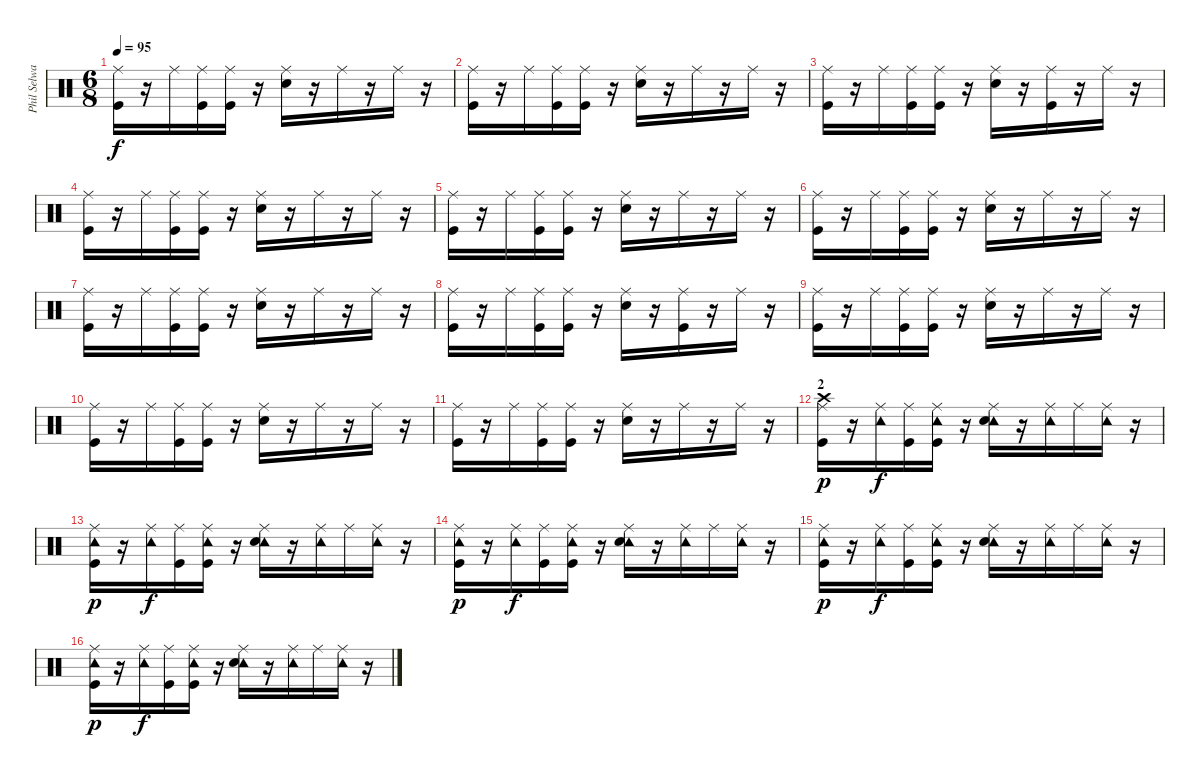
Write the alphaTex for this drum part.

\track ("Phil Selway (Percussions)" "Phil Selwa") {instrument percussion}
\staff {score}
\articulation defaults
\ts (6 8)
\tempo 95
\clef neutral
\ks c
("Ride (middle)" "Kick (hit)").16{dy f} r.16 "Ride (middle)".16 ("Ride (middle)" "Kick (hit)").16 ("Ride (middle)" "Kick (hit)").16 r.16 ("Ride (middle)" "Electric Snare (hit)").16 r.16 "Ride (middle)".16 r.16 "Ride (middle)".16 r.16 |
("Ride (middle)" "Kick (hit)").16 r.16 "Ride (middle)".16 ("Ride (middle)" "Kick (hit)").16 ("Ride (middle)" "Kick (hit)").16 r.16 ("Ride (middle)" "Electric Snare (hit)").16 r.16 "Ride (middle)".16 r.16 "Ride (middle)".16 r.16 |
("Ride (middle)" "Kick (hit)").16 r.16 "Ride (middle)".16 ("Ride (middle)" "Kick (hit)").16 ("Ride (middle)" "Kick (hit)").16 r.16 ("Ride (middle)" "Electric Snare (hit)").16 r.16 ("Ride (middle)" "Kick (hit)").16 r.16 "Ride (middle)".16 r.16 |
("Ride (middle)" "Kick (hit)").16 r.16 "Ride (middle)".16 ("Ride (middle)" "Kick (hit)").16 ("Ride (middle)" "Kick (hit)").16 r.16 ("Ride (middle)" "Electric Snare (hit)").16 r.16 "Ride (middle)".16 r.16 "Ride (middle)".16 r.16 |
("Ride (middle)" "Kick (hit)").16 r.16 "Ride (middle)".16 ("Ride (middle)" "Kick (hit)").16 ("Ride (middle)" "Kick (hit)").16 r.16 ("Ride (middle)" "Electric Snare (hit)").16 r.16 "Ride (middle)".16 r.16 "Ride (middle)".16 r.16 |
("Ride (middle)" "Kick (hit)").16 r.16 "Ride (middle)".16 ("Ride (middle)" "Kick (hit)").16 ("Ride (middle)" "Kick (hit)").16 r.16 ("Ride (middle)" "Electric Snare (hit)").16 r.16 "Ride (middle)".16 r.16 "Ride (middle)".16 r.16 |
("Ride (middle)" "Kick (hit)").16 r.16 "Ride (middle)".16 ("Ride (middle)" "Kick (hit)").16 ("Ride (middle)" "Kick (hit)").16 r.16 ("Ride (middle)" "Electric Snare (hit)").16 r.16 "Ride (middle)".16 r.16 "Ride (middle)".16 r.16 |
("Ride (middle)" "Kick (hit)").16 r.16 "Ride (middle)".16 ("Ride (middle)" "Kick (hit)").16 ("Ride (middle)" "Kick (hit)").16 r.16 ("Ride (middle)" "Electric Snare (hit)").16 r.16 ("Ride (middle)" "Kick (hit)").16 r.16 "Ride (middle)".16 r.16 |
("Ride (middle)" "Kick (hit)").16 r.16 "Ride (middle)".16 ("Ride (middle)" "Kick (hit)").16 ("Ride (middle)" "Kick (hit)").16 r.16 ("Ride (middle)" "Electric Snare (hit)").16 r.16 "Ride (middle)".16 r.16 "Ride (middle)".16 r.16 |
("Ride (middle)" "Kick (hit)").16 r.16 "Ride (middle)".16 ("Ride (middle)" "Kick (hit)").16 ("Ride (middle)" "Kick (hit)").16 r.16 ("Ride (middle)" "Electric Snare (hit)").16 r.16 "Ride (middle)".16 r.16 "Ride (middle)".16 r.16 |
("Ride (middle)" "Kick (hit)").16 r.16 "Ride (middle)".16 ("Ride (middle)" "Kick (hit)").16 ("Ride (middle)" "Kick (hit)").16 r.16 ("Ride (middle)" "Electric Snare (hit)").16 r.16 "Ride (middle)".16 r.16 "Ride (middle)".16 r.16 |
\section ("" "2")
("Ride (middle)" "Crash high (hit)" "Kick (hit)").16{dy p} r.16 ("Ride (middle)" "Tambourine (hit)").16{dy f} ("Ride (middle)" "Kick (hit)").16 ("Ride (middle)" "Tambourine (hit)" "Kick (hit)").16 r.16 ("Ride (middle)" "Tambourine (hit)" "Electric Snare (hit)").16 r.16 ("Ride (middle)" "Tambourine (hit)").16 "Ride (middle)".16 ("Ride (middle)" "Tambourine (hit)").16 r.16 |
("Ride (middle)" "Tambourine (hit)" "Kick (hit)").16{dy p} r.16 ("Ride (middle)" "Tambourine (hit)").16{dy f} ("Ride (middle)" "Kick (hit)").16 ("Ride (middle)" "Tambourine (hit)" "Kick (hit)").16 r.16 ("Ride (middle)" "Tambourine (hit)" "Electric Snare (hit)").16 r.16 ("Ride (middle)" "Tambourine (hit)").16 "Ride (middle)".16 ("Ride (middle)" "Tambourine (hit)").16 r.16 |
("Ride (middle)" "Tambourine (hit)" "Kick (hit)").16{dy p} r.16 ("Ride (middle)" "Tambourine (hit)").16{dy f} ("Ride (middle)" "Kick (hit)").16 ("Ride (middle)" "Tambourine (hit)" "Kick (hit)").16 r.16 ("Ride (middle)" "Tambourine (hit)" "Electric Snare (hit)").16 r.16 ("Ride (middle)" "Tambourine (hit)").16 "Ride (middle)".16 ("Ride (middle)" "Tambourine (hit)").16 r.16 |
("Ride (middle)" "Tambourine (hit)" "Kick (hit)").16{dy p} r.16 ("Ride (middle)" "Tambourine (hit)").16{dy f} ("Ride (middle)" "Kick (hit)").16 ("Ride (middle)" "Tambourine (hit)" "Kick (hit)").16 r.16 ("Ride (middle)" "Tambourine (hit)" "Electric Snare (hit)").16 r.16 ("Ride (middle)" "Tambourine (hit)").16 "Ride (middle)".16 ("Ride (middle)" "Tambourine (hit)").16 r.16 |
("Ride (middle)" "Tambourine (hit)" "Kick (hit)").16{dy p} r.16 ("Ride (middle)" "Tambourine (hit)").16{dy f} ("Ride (middle)" "Kick (hit)").16 ("Ride (middle)" "Tambourine (hit)" "Kick (hit)").16 r.16 ("Ride (middle)" "Tambourine (hit)" "Electric Snare (hit)").16 r.16 ("Ride (middle)" "Tambourine (hit)").16 "Ride (middle)".16 ("Ride (middle)" "Tambourine (hit)").16 r.16
